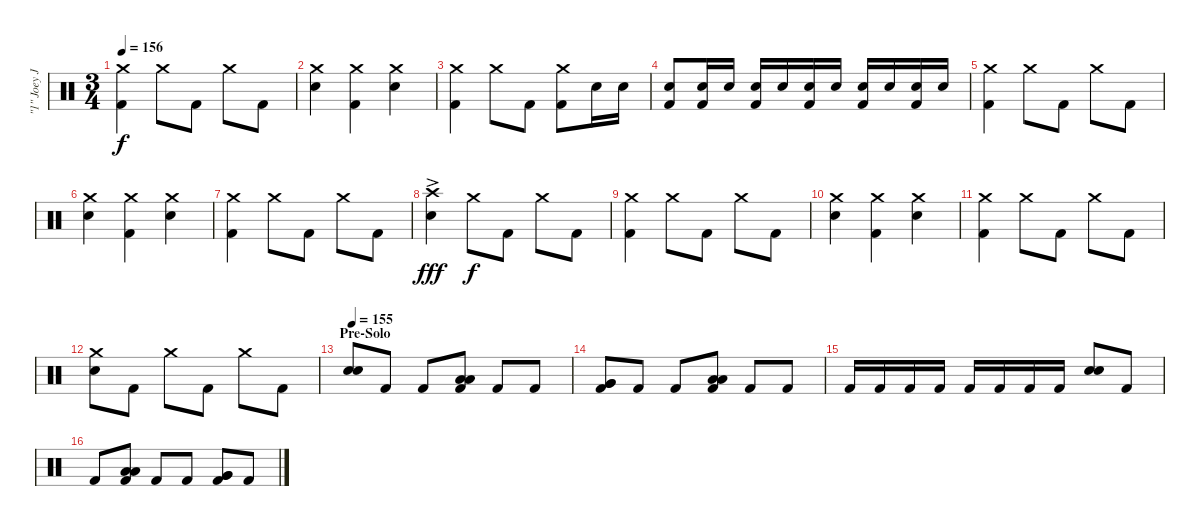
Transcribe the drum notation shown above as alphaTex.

\track ("\"1\" Joey Jordison (Drums)" "\"1\" Joey J") {instrument percussion}
\staff {score}
\articulation defaults
\ts (3 4)
\tempo 156
\clef neutral
\ks c
("Crash medium (hit)" "Kick (hit) 2").4{dy f} "Crash medium (hit)".8 "Kick (hit) 2".8 "Crash medium (hit)".8 "Kick (hit) 2".8 |
("Crash medium (hit)" "Electric Snare (hit)").4 ("Crash medium (hit)" "Kick (hit) 2").4 ("Crash medium (hit)" "Electric Snare (hit)").4 |
("Crash medium (hit)" "Kick (hit) 2").4 "Crash medium (hit)".8 "Kick (hit) 2".8 ("Crash medium (hit)" "Kick (hit) 2").8 "Electric Snare (hit)".16 "Electric Snare (hit)".16 |
("Electric Snare (hit)" "Kick (hit) 2").8 ("Electric Snare (hit)" "Kick (hit) 2").16 "Electric Snare (hit)".16 ("Electric Snare (hit)" "Kick (hit) 2").16 "Electric Snare (hit)".16 ("Electric Snare (hit)" "Kick (hit) 2").16 "Electric Snare (hit)".16 ("Electric Snare (hit)" "Kick (hit) 2").16 "Electric Snare (hit)".16 ("Electric Snare (hit)" "Kick (hit) 2").16 "Electric Snare (hit)".16 |
("Crash medium (hit)" "Kick (hit) 2").4 "Crash medium (hit)".8 "Kick (hit) 2".8 "Crash medium (hit)".8 "Kick (hit) 2".8 |
("Crash medium (hit)" "Electric Snare (hit)").4 ("Crash medium (hit)" "Kick (hit) 2").4 ("Crash medium (hit)" "Electric Snare (hit)").4 |
("Crash medium (hit)" "Kick (hit) 2").4 "Crash medium (hit)".8 "Kick (hit) 2".8 "Crash medium (hit)".8 "Kick (hit) 2".8 |
("Crash high (hit)"{ac} "Electric Snare (hit)").4{dy fff} "Crash medium (hit)".8{dy f} "Kick (hit) 2".8 "Crash medium (hit)".8 "Kick (hit) 2".8 |
("Crash medium (hit)" "Kick (hit) 2").4 "Crash medium (hit)".8 "Kick (hit) 2".8 "Crash medium (hit)".8 "Kick (hit) 2".8 |
("Crash medium (hit)" "Electric Snare (hit)").4 ("Crash medium (hit)" "Kick (hit) 2").4 ("Crash medium (hit)" "Electric Snare (hit)").4 |
("Crash medium (hit)" "Kick (hit) 2").4 "Crash medium (hit)".8 "Kick (hit) 2".8 "Crash medium (hit)".8 "Kick (hit) 2".8 |
("Crash medium (hit)" "Electric Snare (hit)").8 "Kick (hit) 2".8 "Crash medium (hit)".8 "Kick (hit) 2".8 "Crash medium (hit)".8 "Kick (hit) 2".8 |
\section ("" "Pre-Solo")
\tempo 155
("Electric Snare (hit)" "Electric Snare (hit)").8{bd 120} "Kick (hit) 2".8 "Kick (hit) 2".8 ("Low Tom (hit)" "Low Tom (hit)" "Kick (hit) 2").8{bd 60} "Kick (hit) 2".8 "Kick (hit) 2".8 |
("Very Low Tom (hit)" "Very Low Tom (hit)" "Kick (hit) 2").8{bd 60} "Kick (hit) 2".8 "Kick (hit) 2".8 ("Low Floor Tom (hit)" "Low Floor Tom (hit)" "Kick (hit) 2").8{bd 60} "Kick (hit) 2".8 "Kick (hit) 2".8 |
"Kick (hit) 2".16 "Kick (hit) 2".16 "Kick (hit) 2".16 "Kick (hit) 2".16 "Kick (hit) 2".16 "Kick (hit) 2".16 "Kick (hit) 2".16 "Kick (hit) 2".16 ("Electric Snare (hit)" "Electric Snare (hit)").8{bd 120} "Kick (hit) 2".8 |
"Kick (hit) 2".8 ("Low Tom (hit)" "Low Tom (hit)" "Kick (hit) 2").8{bd 60} "Kick (hit) 2".8 "Kick (hit) 2".8 ("Very Low Tom (hit)" "Very Low Tom (hit)" "Kick (hit) 2").8{bd 60} "Kick (hit) 2".8
